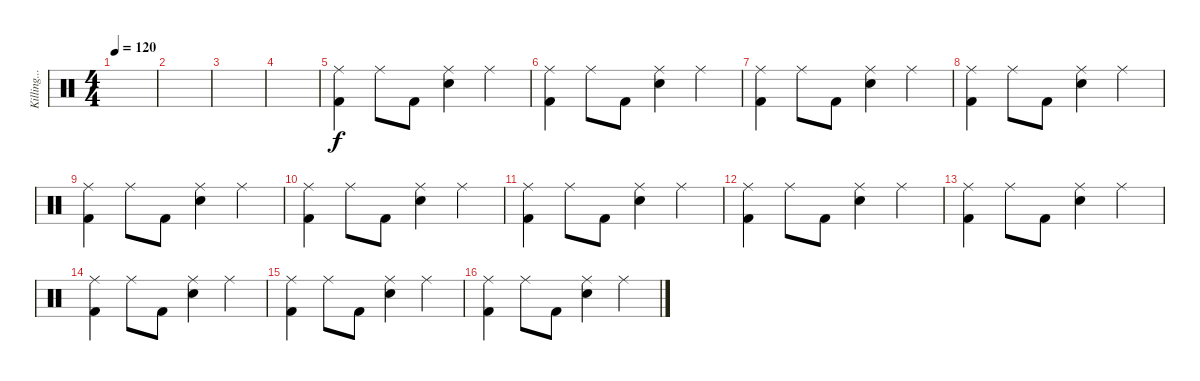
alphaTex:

\track ("Killing.....Is His Business" "Killing...") {instrument percussion}
\staff {score}
\articulation defaults
\ts (4 4)
\tempo 120
\clef neutral
\ks c
|
|
|
|
("Ride (middle)" "Kick (hit) 2").4{volume 5} "Ride (middle)".8{volume 9} "Kick (hit) 2".8 ("Ride (middle)" "Snare (hit) 2").4 "Ride (middle)".4 |
("Ride (middle)" "Kick (hit) 2").4 "Ride (middle)".8 "Kick (hit) 2".8 ("Ride (middle)" "Snare (hit) 2").4 "Ride (middle)".4 |
("Ride (middle)" "Kick (hit) 2").4{volume 13} "Ride (middle)".8 "Kick (hit) 2".8 ("Ride (middle)" "Snare (hit) 2").4 "Ride (middle)".4 |
("Ride (middle)" "Kick (hit) 2").4 "Ride (middle)".8 "Kick (hit) 2".8 ("Ride (middle)" "Snare (hit) 2").4 "Ride (middle)".4 |
("Ride (middle)" "Kick (hit) 2").4 "Ride (middle)".8 "Kick (hit) 2".8 ("Ride (middle)" "Snare (hit) 2").4 "Ride (middle)".4 |
("Ride (middle)" "Kick (hit) 2").4 "Ride (middle)".8 "Kick (hit) 2".8 ("Ride (middle)" "Snare (hit) 2").4 "Ride (middle)".4 |
("Ride (middle)" "Kick (hit) 2").4 "Ride (middle)".8 "Kick (hit) 2".8 ("Ride (middle)" "Snare (hit) 2").4 "Ride (middle)".4 |
("Ride (middle)" "Kick (hit) 2").4 "Ride (middle)".8 "Kick (hit) 2".8 ("Ride (middle)" "Snare (hit) 2").4 "Ride (middle)".4 |
("Ride (middle)" "Kick (hit) 2").4 "Ride (middle)".8 "Kick (hit) 2".8 ("Ride (middle)" "Snare (hit) 2").4 "Ride (middle)".4 |
("Ride (middle)" "Kick (hit) 2").4 "Ride (middle)".8 "Kick (hit) 2".8 ("Ride (middle)" "Snare (hit) 2").4 "Ride (middle)".4 |
("Ride (middle)" "Kick (hit) 2").4 "Ride (middle)".8 "Kick (hit) 2".8 ("Ride (middle)" "Snare (hit) 2").4 "Ride (middle)".4 |
("Ride (middle)" "Kick (hit) 2").4 "Ride (middle)".8 "Kick (hit) 2".8 ("Ride (middle)" "Snare (hit) 2").4 "Ride (middle)".4
